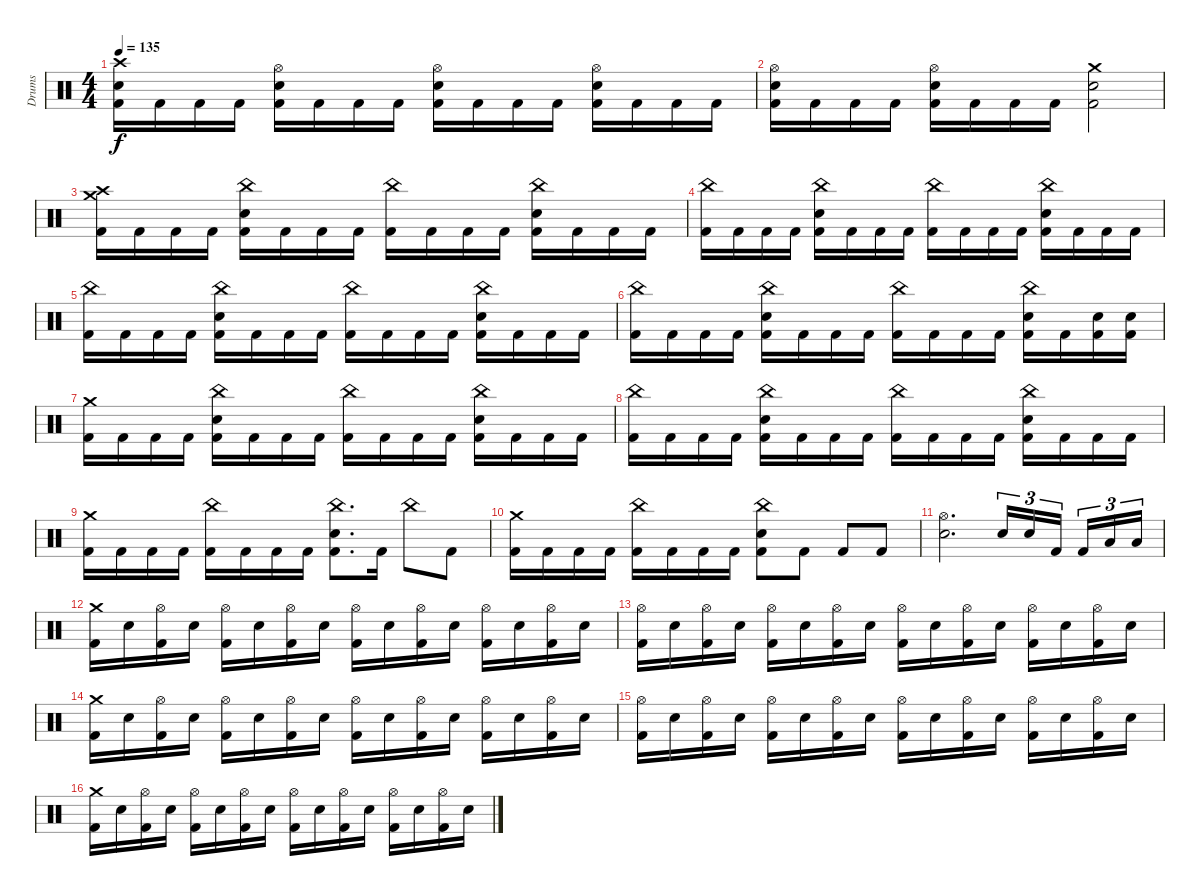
\track ("Drums" "Drums") {instrument percussion}
\staff {score}
\articulation defaults
\ts (4 4)
\tempo 135
\clef neutral
\ks c
("Crash high (hit)" "Electric Snare (hit)" "Kick (hit) 2").16{dy f} "Kick (hit) 2".16 "Kick (hit) 2".16 "Kick (hit) 2".16 ("Hi-Hat (open)" "Electric Snare (hit)" "Kick (hit) 2").16 "Kick (hit) 2".16 "Kick (hit) 2".16 "Kick (hit) 2".16 ("Hi-Hat (open)" "Electric Snare (hit)" "Kick (hit) 2").16 "Kick (hit) 2".16 "Kick (hit) 2".16 "Kick (hit) 2".16 ("Hi-Hat (open)" "Electric Snare (hit)" "Kick (hit) 2").16 "Kick (hit) 2".16 "Kick (hit) 2".16 "Kick (hit) 2".16 |
("Hi-Hat (open)" "Electric Snare (hit)" "Kick (hit) 2").16 "Kick (hit) 2".16 "Kick (hit) 2".16 "Kick (hit) 2".16 ("Hi-Hat (open)" "Electric Snare (hit)" "Kick (hit) 2").16 "Kick (hit) 2".16 "Kick (hit) 2".16 "Kick (hit) 2".16 ("Crash medium (hit)" "Electric Snare (hit)" "Kick (hit) 2").2 |
("Crash high (hit)" "Crash medium (hit)" "Kick (hit) 2").16 "Kick (hit) 2".16 "Kick (hit) 2".16 "Kick (hit) 2".16 ("China (hit)" "Electric Snare (hit)" "Kick (hit) 2").16 "Kick (hit) 2".16 "Kick (hit) 2".16 "Kick (hit) 2".16 ("China (hit)" "Kick (hit) 2").16 "Kick (hit) 2".16 "Kick (hit) 2".16 "Kick (hit) 2".16 ("China (hit)" "Electric Snare (hit)" "Kick (hit) 2").16 "Kick (hit) 2".16 "Kick (hit) 2".16 "Kick (hit) 2".16 |
("China (hit)" "Kick (hit) 2").16 "Kick (hit) 2".16 "Kick (hit) 2".16 "Kick (hit) 2".16 ("China (hit)" "Electric Snare (hit)" "Kick (hit) 2").16 "Kick (hit) 2".16 "Kick (hit) 2".16 "Kick (hit) 2".16 ("China (hit)" "Kick (hit) 2").16 "Kick (hit) 2".16 "Kick (hit) 2".16 "Kick (hit) 2".16 ("China (hit)" "Electric Snare (hit)" "Kick (hit) 2").16 "Kick (hit) 2".16 "Kick (hit) 2".16 "Kick (hit) 2".16 |
("China (hit)" "Kick (hit) 2").16 "Kick (hit) 2".16 "Kick (hit) 2".16 "Kick (hit) 2".16 ("China (hit)" "Electric Snare (hit)" "Kick (hit) 2").16 "Kick (hit) 2".16 "Kick (hit) 2".16 "Kick (hit) 2".16 ("China (hit)" "Kick (hit) 2").16 "Kick (hit) 2".16 "Kick (hit) 2".16 "Kick (hit) 2".16 ("China (hit)" "Electric Snare (hit)" "Kick (hit) 2").16 "Kick (hit) 2".16 "Kick (hit) 2".16 "Kick (hit) 2".16 |
("China (hit)" "Kick (hit) 2").16 "Kick (hit) 2".16 "Kick (hit) 2".16 "Kick (hit) 2".16 ("China (hit)" "Electric Snare (hit)" "Kick (hit) 2").16 "Kick (hit) 2".16 "Kick (hit) 2".16 "Kick (hit) 2".16 ("China (hit)" "Kick (hit) 2").16 "Kick (hit) 2".16 "Kick (hit) 2".16 "Kick (hit) 2".16 ("China (hit)" "Electric Snare (hit)" "Kick (hit) 2").16 "Kick (hit) 2".16 ("Electric Snare (hit)" "Kick (hit) 2").16 ("Electric Snare (hit)" "Kick (hit) 2").16 |
("Crash medium (hit)" "Kick (hit) 2").16 "Kick (hit) 2".16 "Kick (hit) 2".16 "Kick (hit) 2".16 ("China (hit)" "Electric Snare (hit)" "Kick (hit) 2").16 "Kick (hit) 2".16 "Kick (hit) 2".16 "Kick (hit) 2".16 ("China (hit)" "Kick (hit) 2").16 "Kick (hit) 2".16 "Kick (hit) 2".16 "Kick (hit) 2".16 ("China (hit)" "Electric Snare (hit)" "Kick (hit) 2").16 "Kick (hit) 2".16 "Kick (hit) 2".16 "Kick (hit) 2".16 |
("China (hit)" "Kick (hit) 2").16 "Kick (hit) 2".16 "Kick (hit) 2".16 "Kick (hit) 2".16 ("China (hit)" "Electric Snare (hit)" "Kick (hit) 2").16 "Kick (hit) 2".16 "Kick (hit) 2".16 "Kick (hit) 2".16 ("China (hit)" "Kick (hit) 2").16 "Kick (hit) 2".16 "Kick (hit) 2".16 "Kick (hit) 2".16 ("China (hit)" "Electric Snare (hit)" "Kick (hit) 2").16 "Kick (hit) 2".16 "Kick (hit) 2".16 "Kick (hit) 2".16 |
("Crash medium (hit)" "Kick (hit) 2").16 "Kick (hit) 2".16 "Kick (hit) 2".16 "Kick (hit) 2".16 ("China (hit)" "Kick (hit) 2").16 "Kick (hit) 2".16 "Kick (hit) 2".16 "Kick (hit) 2".16 ("China (hit)" "Electric Snare (hit)" "Kick (hit) 2").8{d} "Kick (hit) 2".16 "China (hit)".8 "Kick (hit) 2".8 |
("Crash medium (hit)" "Kick (hit) 2").16 "Kick (hit) 2".16 "Kick (hit) 2".16 "Kick (hit) 2".16 ("China (hit)" "Kick (hit) 2").16 "Kick (hit) 2".16 "Kick (hit) 2".16 "Kick (hit) 2".16 ("China (hit)" "Electric Snare (hit)" "Kick (hit) 2").8 "Kick (hit) 2".8 "Kick (hit) 2".8 "Kick (hit) 2".8 |
("Hi-Hat (open)" "Electric Snare (hit)").2{d} "Electric Snare (hit)".16{tu (3 2)} "Electric Snare (hit)".16{tu (3 2)} "Kick (hit) 2".16{tu (3 2) beam splitsecondary} "Kick (hit) 2".16{tu (3 2)} "Low Tom (hit)".16{tu (3 2)} "Low Tom (hit)".16{tu (3 2)} |
("Crash medium (hit)" "Kick (hit) 2").16 "Electric Snare (hit)".16 ("Hi-Hat (open)" "Kick (hit) 2").16 "Electric Snare (hit)".16 ("Hi-Hat (open)" "Kick (hit) 2").16 "Electric Snare (hit)".16 ("Hi-Hat (open)" "Kick (hit) 2").16 "Electric Snare (hit)".16 ("Hi-Hat (open)" "Kick (hit) 2").16 "Electric Snare (hit)".16 ("Hi-Hat (open)" "Kick (hit) 2").16 "Electric Snare (hit)".16 ("Hi-Hat (open)" "Kick (hit) 2").16 "Electric Snare (hit)".16 ("Hi-Hat (open)" "Kick (hit) 2").16 "Electric Snare (hit)".16 |
("Hi-Hat (open)" "Kick (hit) 2").16 "Electric Snare (hit)".16 ("Hi-Hat (open)" "Kick (hit) 2").16 "Electric Snare (hit)".16 ("Hi-Hat (open)" "Kick (hit) 2").16 "Electric Snare (hit)".16 ("Hi-Hat (open)" "Kick (hit) 2").16 "Electric Snare (hit)".16 ("Hi-Hat (open)" "Kick (hit) 2").16 "Electric Snare (hit)".16 ("Hi-Hat (open)" "Kick (hit) 2").16 "Electric Snare (hit)".16 ("Hi-Hat (open)" "Kick (hit) 2").16 "Electric Snare (hit)".16 ("Hi-Hat (open)" "Kick (hit) 2").16 "Electric Snare (hit)".16 |
("Crash medium (hit)" "Kick (hit) 2").16 "Electric Snare (hit)".16 ("Hi-Hat (open)" "Kick (hit) 2").16 "Electric Snare (hit)".16 ("Hi-Hat (open)" "Kick (hit) 2").16 "Electric Snare (hit)".16 ("Hi-Hat (open)" "Kick (hit) 2").16 "Electric Snare (hit)".16 ("Hi-Hat (open)" "Kick (hit) 2").16 "Electric Snare (hit)".16 ("Hi-Hat (open)" "Kick (hit) 2").16 "Electric Snare (hit)".16 ("Hi-Hat (open)" "Kick (hit) 2").16 "Electric Snare (hit)".16 ("Hi-Hat (open)" "Kick (hit) 2").16 "Electric Snare (hit)".16 |
("Hi-Hat (open)" "Kick (hit) 2").16 "Electric Snare (hit)".16 ("Hi-Hat (open)" "Kick (hit) 2").16 "Electric Snare (hit)".16 ("Hi-Hat (open)" "Kick (hit) 2").16 "Electric Snare (hit)".16 ("Hi-Hat (open)" "Kick (hit) 2").16 "Electric Snare (hit)".16 ("Hi-Hat (open)" "Kick (hit) 2").16 "Electric Snare (hit)".16 ("Hi-Hat (open)" "Kick (hit) 2").16 "Electric Snare (hit)".16 ("Hi-Hat (open)" "Kick (hit) 2").16 "Electric Snare (hit)".16 ("Hi-Hat (open)" "Kick (hit) 2").16 "Electric Snare (hit)".16 |
("Crash medium (hit)" "Kick (hit) 2").16 "Electric Snare (hit)".16 ("Hi-Hat (open)" "Kick (hit) 2").16 "Electric Snare (hit)".16 ("Hi-Hat (open)" "Kick (hit) 2").16 "Electric Snare (hit)".16 ("Hi-Hat (open)" "Kick (hit) 2").16 "Electric Snare (hit)".16 ("Hi-Hat (open)" "Kick (hit) 2").16 "Electric Snare (hit)".16 ("Hi-Hat (open)" "Kick (hit) 2").16 "Electric Snare (hit)".16 ("Hi-Hat (open)" "Kick (hit) 2").16 "Electric Snare (hit)".16 ("Hi-Hat (open)" "Kick (hit) 2").16 "Electric Snare (hit)".16
